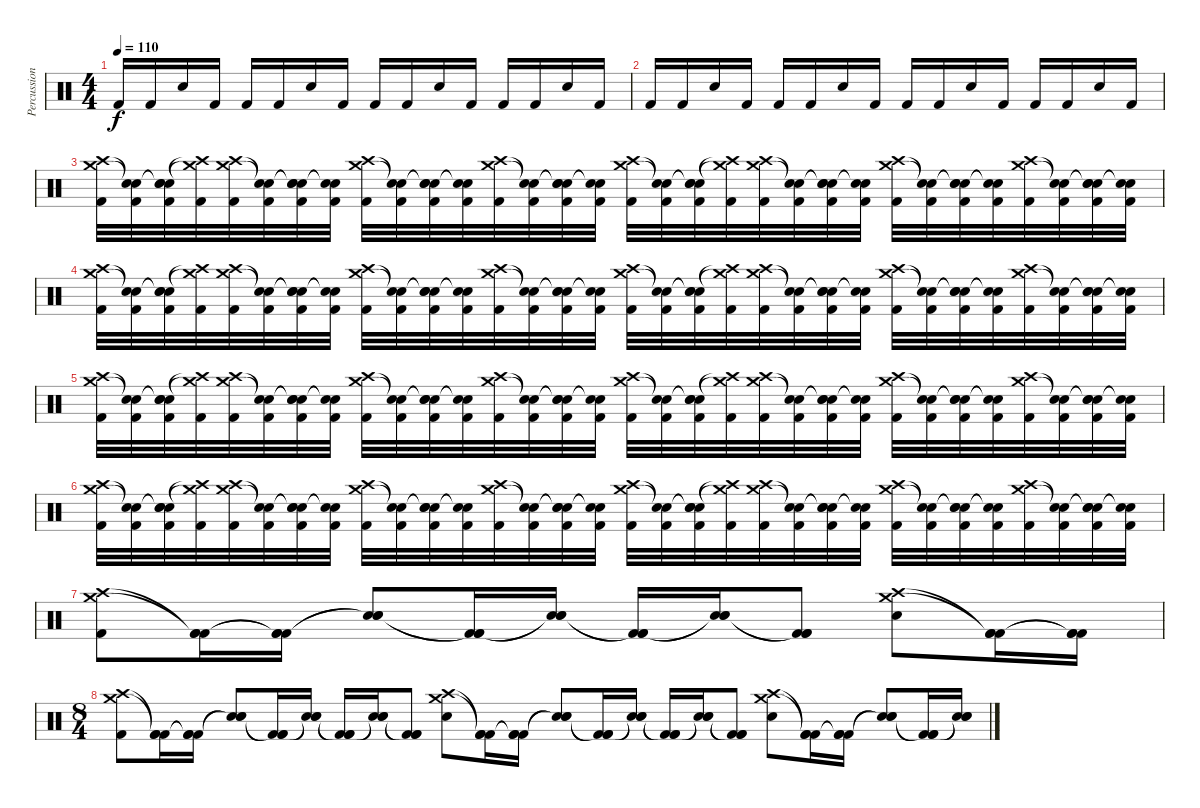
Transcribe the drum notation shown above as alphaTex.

\track ("Percussion" "Percussion") {instrument percussion}
\staff {score}
\articulation defaults
\ts (4 4)
\tempo 110
\clef neutral
\ks c "Kick (hit) 2".16{dy f} "Kick (hit) 2".16 "Snare (hit) 2".16 "Kick (hit) 2".16 "Kick (hit) 2".16 "Kick (hit) 2".16 "Snare (hit) 2".16 "Kick (hit) 2".16 "Kick (hit) 2".16 "Kick (hit) 2".16 "Snare (hit) 2".16 "Kick (hit) 2".16 "Kick (hit) 2".16 "Kick (hit) 2".16 "Snare (hit) 2".16 "Kick (hit) 2".16
|
"Kick (hit) 2".16 "Kick (hit) 2".16 "Snare (hit) 2".16 "Kick (hit) 2".16 "Kick (hit) 2".16 "Kick (hit) 2".16 "Snare (hit) 2".16 "Kick (hit) 2".16 "Kick (hit) 2".16 "Kick (hit) 2".16 "Snare (hit) 2".16 "Kick (hit) 2".16 "Kick (hit) 2".16 "Kick (hit) 2".16 "Snare (hit) 2".16 "Kick (hit) 2".16 |
("Crash high (hit)" "Crash medium (hit)" "Kick (hit) 2").32 ("Snare (hit)"{t} "Snare (hit)"{t} "Kick (hit) 2").32 ("Snare (hit)"{t} "Snare (hit)"{t} "Snare (hit) 2" "Kick (hit) 2").32 ("Crash high (hit)"{t} "Crash medium (hit)"{t} "Kick (hit) 2").32 ("Crash high (hit)" "Crash medium (hit)" "Kick (hit) 2").32 ("Snare (hit)"{t} "Snare (hit)"{t} "Kick (hit) 2").32 ("Snare (hit)"{t} "Snare (hit)"{t} "Snare (hit) 2" "Kick (hit) 2").32 ("Snare (hit)"{t} "Snare (hit)"{t} "Kick (hit) 2").32 ("Crash high (hit)" "Crash medium (hit)" "Kick (hit) 2").32 ("Snare (hit)"{t} "Snare (hit)"{t} "Kick (hit) 2").32 ("Snare (hit)"{t} "Snare (hit)"{t} "Snare (hit) 2" "Kick (hit) 2").32 ("Snare (hit)"{t} "Snare (hit)"{t} "Kick (hit) 2").32 ("Crash high (hit)" "Crash medium (hit)" "Kick (hit) 2").32 ("Snare (hit)"{t} "Snare (hit)"{t} "Kick (hit) 2").32 ("Snare (hit)"{t} "Snare (hit)"{t} "Snare (hit) 2" "Kick (hit) 2").32 ("Snare (hit)"{t} "Snare (hit)"{t} "Kick (hit) 2").32 ("Crash high (hit)" "Crash medium (hit)" "Kick (hit) 2").32 ("Snare (hit)"{t} "Snare (hit)"{t} "Kick (hit) 2").32 ("Snare (hit)"{t} "Snare (hit)"{t} "Snare (hit) 2" "Kick (hit) 2").32 ("Crash high (hit)"{t} "Crash medium (hit)"{t} "Kick (hit) 2").32 ("Crash high (hit)" "Crash medium (hit)" "Kick (hit) 2").32 ("Snare (hit)"{t} "Snare (hit)"{t} "Kick (hit) 2").32 ("Snare (hit)"{t} "Snare (hit)"{t} "Snare (hit) 2" "Kick (hit) 2").32 ("Snare (hit)"{t} "Snare (hit)"{t} "Kick (hit) 2").32 ("Crash high (hit)" "Crash medium (hit)" "Kick (hit) 2").32 ("Snare (hit)"{t} "Snare (hit)"{t} "Kick (hit) 2").32 ("Snare (hit)"{t} "Snare (hit)"{t} "Snare (hit) 2" "Kick (hit) 2").32 ("Snare (hit)"{t} "Snare (hit)"{t} "Kick (hit) 2").32 ("Crash high (hit)" "Crash medium (hit)" "Kick (hit) 2").32 ("Snare (hit)"{t} "Snare (hit)"{t} "Kick (hit) 2").32 ("Snare (hit)"{t} "Snare (hit)"{t} "Snare (hit) 2" "Kick (hit) 2").32 ("Snare (hit)"{t} "Snare (hit)"{t} "Kick (hit) 2").32 |
("Crash high (hit)" "Crash medium (hit)" "Kick (hit) 2").32 ("Snare (hit)"{t} "Snare (hit)"{t} "Kick (hit) 2").32 ("Snare (hit)"{t} "Snare (hit)"{t} "Snare (hit) 2" "Kick (hit) 2").32 ("Crash high (hit)"{t} "Crash medium (hit)"{t} "Kick (hit) 2").32 ("Crash high (hit)" "Crash medium (hit)" "Kick (hit) 2").32 ("Snare (hit)"{t} "Snare (hit)"{t} "Kick (hit) 2").32 ("Snare (hit)"{t} "Snare (hit)"{t} "Snare (hit) 2" "Kick (hit) 2").32 ("Snare (hit)"{t} "Snare (hit)"{t} "Kick (hit) 2").32 ("Crash high (hit)" "Crash medium (hit)" "Kick (hit) 2").32 ("Snare (hit)"{t} "Snare (hit)"{t} "Kick (hit) 2").32 ("Snare (hit)"{t} "Snare (hit)"{t} "Snare (hit) 2" "Kick (hit) 2").32 ("Snare (hit)"{t} "Snare (hit)"{t} "Kick (hit) 2").32 ("Crash high (hit)" "Crash medium (hit)" "Kick (hit) 2").32 ("Snare (hit)"{t} "Snare (hit)"{t} "Kick (hit) 2").32 ("Snare (hit)"{t} "Snare (hit)"{t} "Snare (hit) 2" "Kick (hit) 2").32 ("Snare (hit)"{t} "Snare (hit)"{t} "Kick (hit) 2").32 ("Crash high (hit)" "Crash medium (hit)" "Kick (hit) 2").32 ("Snare (hit)"{t} "Snare (hit)"{t} "Kick (hit) 2").32 ("Snare (hit)"{t} "Snare (hit)"{t} "Snare (hit) 2" "Kick (hit) 2").32 ("Crash high (hit)"{t} "Crash medium (hit)"{t} "Kick (hit) 2").32 ("Crash high (hit)" "Crash medium (hit)" "Kick (hit) 2").32 ("Snare (hit)"{t} "Snare (hit)"{t} "Kick (hit) 2").32 ("Snare (hit)"{t} "Snare (hit)"{t} "Snare (hit) 2" "Kick (hit) 2").32 ("Snare (hit)"{t} "Snare (hit)"{t} "Kick (hit) 2").32 ("Crash high (hit)" "Crash medium (hit)" "Kick (hit) 2").32 ("Snare (hit)"{t} "Snare (hit)"{t} "Kick (hit) 2").32 ("Snare (hit)"{t} "Snare (hit)"{t} "Snare (hit) 2" "Kick (hit) 2").32 ("Snare (hit)"{t} "Snare (hit)"{t} "Kick (hit) 2").32 ("Crash high (hit)" "Crash medium (hit)" "Kick (hit) 2").32 ("Snare (hit)"{t} "Snare (hit)"{t} "Kick (hit) 2").32 ("Snare (hit)"{t} "Snare (hit)"{t} "Snare (hit) 2" "Kick (hit) 2").32 ("Snare (hit)"{t} "Snare (hit)"{t} "Kick (hit) 2").32 |
("Crash high (hit)" "Crash medium (hit)" "Kick (hit) 2").32 ("Snare (hit)"{t} "Snare (hit)"{t} "Kick (hit) 2").32 ("Snare (hit)"{t} "Snare (hit)"{t} "Snare (hit) 2" "Kick (hit) 2").32 ("Crash high (hit)"{t} "Crash medium (hit)"{t} "Kick (hit) 2").32 ("Crash high (hit)" "Crash medium (hit)" "Kick (hit) 2").32 ("Snare (hit)"{t} "Snare (hit)"{t} "Kick (hit) 2").32 ("Snare (hit)"{t} "Snare (hit)"{t} "Snare (hit) 2" "Kick (hit) 2").32 ("Snare (hit)"{t} "Snare (hit)"{t} "Kick (hit) 2").32 ("Crash high (hit)" "Crash medium (hit)" "Kick (hit) 2").32 ("Snare (hit)"{t} "Snare (hit)"{t} "Kick (hit) 2").32 ("Snare (hit)"{t} "Snare (hit)"{t} "Snare (hit) 2" "Kick (hit) 2").32 ("Snare (hit)"{t} "Snare (hit)"{t} "Kick (hit) 2").32 ("Crash high (hit)" "Crash medium (hit)" "Kick (hit) 2").32 ("Snare (hit)"{t} "Snare (hit)"{t} "Kick (hit) 2").32 ("Snare (hit)"{t} "Snare (hit)"{t} "Snare (hit) 2" "Kick (hit) 2").32 ("Snare (hit)"{t} "Snare (hit)"{t} "Kick (hit) 2").32 ("Crash high (hit)" "Crash medium (hit)" "Kick (hit) 2").32 ("Snare (hit)"{t} "Snare (hit)"{t} "Kick (hit) 2").32 ("Snare (hit)"{t} "Snare (hit)"{t} "Snare (hit) 2" "Kick (hit) 2").32 ("Crash high (hit)"{t} "Crash medium (hit)"{t} "Kick (hit) 2").32 ("Crash high (hit)" "Crash medium (hit)" "Kick (hit) 2").32 ("Snare (hit)"{t} "Snare (hit)"{t} "Kick (hit) 2").32 ("Snare (hit)"{t} "Snare (hit)"{t} "Snare (hit) 2" "Kick (hit) 2").32 ("Snare (hit)"{t} "Snare (hit)"{t} "Kick (hit) 2").32 ("Crash high (hit)" "Crash medium (hit)" "Kick (hit) 2").32 ("Snare (hit)"{t} "Snare (hit)"{t} "Kick (hit) 2").32 ("Snare (hit)"{t} "Snare (hit)"{t} "Snare (hit) 2" "Kick (hit) 2").32 ("Snare (hit)"{t} "Snare (hit)"{t} "Kick (hit) 2").32 ("Crash high (hit)" "Crash medium (hit)" "Kick (hit) 2").32 ("Snare (hit)"{t} "Snare (hit)"{t} "Kick (hit) 2").32 ("Snare (hit)"{t} "Snare (hit)"{t} "Snare (hit) 2" "Kick (hit) 2").32 ("Snare (hit)"{t} "Snare (hit)"{t} "Kick (hit) 2").32 |
("Crash high (hit)" "Crash medium (hit)" "Kick (hit) 2").32 ("Snare (hit)"{t} "Snare (hit)"{t} "Kick (hit) 2").32 ("Snare (hit)"{t} "Snare (hit)"{t} "Snare (hit) 2" "Kick (hit) 2").32 ("Crash high (hit)"{t} "Crash medium (hit)"{t} "Kick (hit) 2").32 ("Crash high (hit)" "Crash medium (hit)" "Kick (hit) 2").32 ("Snare (hit)"{t} "Snare (hit)"{t} "Kick (hit) 2").32 ("Snare (hit)"{t} "Snare (hit)"{t} "Snare (hit) 2" "Kick (hit) 2").32 ("Snare (hit)"{t} "Snare (hit)"{t} "Kick (hit) 2").32 ("Crash high (hit)" "Crash medium (hit)" "Kick (hit) 2").32 ("Snare (hit)"{t} "Snare (hit)"{t} "Kick (hit) 2").32 ("Snare (hit)"{t} "Snare (hit)"{t} "Snare (hit) 2" "Kick (hit) 2").32 ("Snare (hit)"{t} "Snare (hit)"{t} "Kick (hit) 2").32 ("Crash high (hit)" "Crash medium (hit)" "Kick (hit) 2").32 ("Snare (hit)"{t} "Snare (hit)"{t} "Kick (hit) 2").32 ("Snare (hit)"{t} "Snare (hit)"{t} "Snare (hit) 2" "Kick (hit) 2").32 ("Snare (hit)"{t} "Snare (hit)"{t} "Kick (hit) 2").32 ("Crash high (hit)" "Crash medium (hit)" "Kick (hit) 2").32 ("Snare (hit)"{t} "Snare (hit)"{t} "Kick (hit) 2").32 ("Snare (hit)"{t} "Snare (hit)"{t} "Snare (hit) 2" "Kick (hit) 2").32 ("Crash high (hit)"{t} "Crash medium (hit)"{t} "Kick (hit) 2").32 ("Crash high (hit)" "Crash medium (hit)" "Kick (hit) 2").32 ("Snare (hit)"{t} "Snare (hit)"{t} "Kick (hit) 2").32 ("Snare (hit)"{t} "Snare (hit)"{t} "Snare (hit) 2" "Kick (hit) 2").32 ("Snare (hit)"{t} "Snare (hit)"{t} "Kick (hit) 2").32 ("Crash high (hit)" "Crash medium (hit)" "Kick (hit) 2").32 ("Snare (hit)"{t} "Snare (hit)"{t} "Kick (hit) 2").32 ("Snare (hit)"{t} "Snare (hit)"{t} "Snare (hit) 2" "Kick (hit) 2").32 ("Snare (hit)"{t} "Snare (hit)"{t} "Kick (hit) 2").32 ("Crash high (hit)" "Crash medium (hit)" "Kick (hit) 2").32 ("Snare (hit)"{t} "Snare (hit)"{t} "Kick (hit) 2").32 ("Snare (hit)"{t} "Snare (hit)"{t} "Snare (hit) 2" "Kick (hit) 2").32 ("Snare (hit)"{t} "Snare (hit)"{t} "Kick (hit) 2").32 |
("Crash high (hit)" "Crash medium (hit)" "Kick (hit) 2").8 ("Kick (hit) 2"{t} "Kick (hit) 2"{t} "Kick (hit) 2").16 ("Kick (hit) 2"{t} "Kick (hit) 2"{t} "Kick (hit) 2").16 ("Snare (hit) 2"{t} "Snare (hit) 2"{t} "Snare (hit) 2").8 ("Kick (hit) 2"{t} "Kick (hit) 2"{t} "Kick (hit) 2").16 ("Snare (hit) 2"{t} "Snare (hit) 2"{t} "Snare (hit) 2").16 ("Kick (hit) 2"{t} "Kick (hit) 2"{t} "Kick (hit) 2").16 ("Snare (hit) 2"{t} "Snare (hit) 2"{t} "Snare (hit) 2").16 ("Kick (hit) 2"{t} "Kick (hit) 2"{t} "Kick (hit) 2").8 ("Crash high (hit)" "Crash medium (hit)" "Snare (hit) 2").8 ("Kick (hit) 2"{t} "Kick (hit) 2"{t} "Kick (hit) 2").16 ("Kick (hit) 2"{t} "Kick (hit) 2"{t} "Kick (hit) 2").16 |
\ts (8 4)
("Crash high (hit)" "Crash medium (hit)" "Kick (hit) 2").8 ("Kick (hit) 2"{t} "Kick (hit) 2"{t} "Kick (hit) 2").16 ("Kick (hit) 2"{t} "Kick (hit) 2"{t} "Kick (hit) 2").16 ("Snare (hit) 2"{t} "Snare (hit) 2"{t} "Snare (hit) 2").8 ("Kick (hit) 2"{t} "Kick (hit) 2"{t} "Kick (hit) 2").16 ("Snare (hit) 2"{t} "Snare (hit) 2"{t} "Snare (hit) 2").16 ("Kick (hit) 2"{t} "Kick (hit) 2"{t} "Kick (hit) 2").16 ("Snare (hit) 2"{t} "Snare (hit) 2"{t} "Snare (hit) 2").16 ("Kick (hit) 2"{t} "Kick (hit) 2"{t} "Kick (hit) 2").8 ("Crash high (hit)" "Crash medium (hit)" "Snare (hit) 2").8 ("Kick (hit) 2"{t} "Kick (hit) 2"{t} "Kick (hit) 2").16 ("Kick (hit) 2"{t} "Kick (hit) 2"{t} "Kick (hit) 2").16 ("Snare (hit) 2"{t} "Snare (hit) 2"{t} "Snare (hit) 2").8 ("Kick (hit) 2"{t} "Kick (hit) 2"{t} "Kick (hit) 2").16 ("Snare (hit) 2"{t} "Snare (hit) 2"{t} "Snare (hit) 2").16 ("Kick (hit) 2"{t} "Kick (hit) 2"{t} "Kick (hit) 2").16 ("Snare (hit) 2"{t} "Snare (hit) 2"{t} "Snare (hit) 2").16 ("Kick (hit) 2"{t} "Kick (hit) 2"{t} "Kick (hit) 2").8 ("Crash high (hit)" "Crash medium (hit)" "Snare (hit) 2").8 ("Kick (hit) 2"{t} "Kick (hit) 2"{t} "Kick (hit) 2").16 ("Kick (hit) 2"{t} "Kick (hit) 2"{t} "Kick (hit) 2").16 ("Snare (hit) 2"{t} "Snare (hit) 2"{t} "Snare (hit) 2").8 ("Kick (hit) 2"{t} "Kick (hit) 2"{t} "Kick (hit) 2").16 ("Snare (hit) 2"{t} "Snare (hit) 2"{t} "Snare (hit) 2").16
